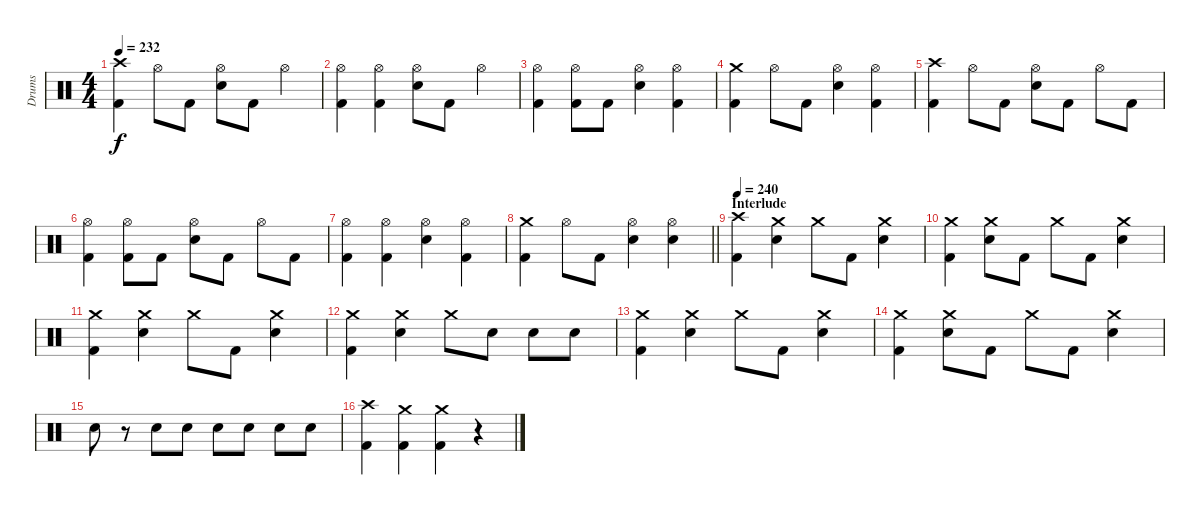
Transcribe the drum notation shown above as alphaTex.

\track ("Drums" "Drums") {instrument percussion}
\staff {score}
\articulation defaults
\ts (4 4)
\tempo 232
\clef neutral
\ks c
("Crash high (hit)" "Kick (hit) 2").4{dy f} "Hi-Hat (open)".8 "Kick (hit) 2".8 ("Hi-Hat (open)" "Snare (hit) 2").8 "Kick (hit) 2".8 "Hi-Hat (open)".4 |
("Hi-Hat (open)" "Kick (hit) 2").4 ("Hi-Hat (open)" "Kick (hit) 2").4 ("Hi-Hat (open)" "Snare (hit) 2").8 "Kick (hit) 2".8 "Hi-Hat (open)".4 |
("Hi-Hat (open)" "Kick (hit) 2").4 ("Hi-Hat (open)" "Kick (hit) 2").8 "Kick (hit) 2".8 ("Hi-Hat (open)" "Snare (hit) 2").4 ("Hi-Hat (open)" "Kick (hit) 2").4 |
("Crash medium (hit)" "Kick (hit) 2").4 "Hi-Hat (open)".8 "Kick (hit) 2".8 ("Hi-Hat (open)" "Snare (hit) 2").4 ("Hi-Hat (open)" "Kick (hit) 2").4 |
("Crash high (hit)" "Kick (hit) 2").4 "Hi-Hat (open)".8 "Kick (hit) 2".8 ("Hi-Hat (open)" "Snare (hit) 2").8 "Kick (hit) 2".8 "Hi-Hat (open)".8 "Kick (hit) 2".8 |
("Hi-Hat (open)" "Kick (hit) 2").4 ("Hi-Hat (open)" "Kick (hit) 2").8 "Kick (hit) 2".8 ("Hi-Hat (open)" "Snare (hit) 2").8 "Kick (hit) 2".8 "Hi-Hat (open)".8 "Kick (hit) 2".8 |
("Hi-Hat (open)" "Kick (hit) 2").4 ("Hi-Hat (open)" "Kick (hit) 2").4 ("Hi-Hat (open)" "Snare (hit) 2").4 ("Hi-Hat (open)" "Kick (hit) 2").4 |
\barLineRight lightlight
("Crash medium (hit)" "Kick (hit) 2").4 "Hi-Hat (open)".8 "Kick (hit) 2".8 ("Hi-Hat (open)" "Snare (hit) 2").4 ("Hi-Hat (open)" "Snare (hit) 2").4 |
\section ("" "Interlude")
\tempo 240
("Crash high (hit)" "Kick (hit) 2").4 ("Crash medium (hit)" "Snare (hit) 2").4 "Crash medium (hit)".8 "Kick (hit) 2".8 ("Crash medium (hit)" "Snare (hit) 2").4 |
("Crash medium (hit)" "Kick (hit) 2").4 ("Crash medium (hit)" "Snare (hit) 2").8 "Kick (hit) 2".8 "Crash medium (hit)".8 "Kick (hit) 2".8 ("Crash medium (hit)" "Snare (hit) 2").4 |
("Crash medium (hit)" "Kick (hit) 2").4 ("Crash medium (hit)" "Snare (hit) 2").4 "Crash medium (hit)".8 "Kick (hit) 2".8 ("Crash medium (hit)" "Snare (hit) 2").4 |
("Crash medium (hit)" "Kick (hit) 2").4 ("Crash medium (hit)" "Snare (hit) 2").4 "Crash medium (hit)".8 "Snare (hit) 2".8 "Snare (hit) 2".8 "Snare (hit) 2".8 |
("Crash medium (hit)" "Kick (hit) 2").4 ("Crash medium (hit)" "Snare (hit) 2").4 "Crash medium (hit)".8 "Kick (hit) 2".8 ("Crash medium (hit)" "Snare (hit) 2").4 |
("Crash medium (hit)" "Kick (hit) 2").4 ("Crash medium (hit)" "Snare (hit) 2").8 "Kick (hit) 2".8 "Crash medium (hit)".8 "Kick (hit) 2".8 ("Crash medium (hit)" "Snare (hit) 2").4 |
"Snare (hit) 2".8 r.8 "Snare (hit) 2".8 "Snare (hit) 2".8 "Snare (hit) 2".8 "Snare (hit) 2".8 "Snare (hit) 2".8 "Snare (hit) 2".8 |
("Crash high (hit)" "Kick (hit) 2").4 ("Crash medium (hit)" "Kick (hit) 2").4 ("Crash medium (hit)" "Kick (hit) 2").4 r.4
